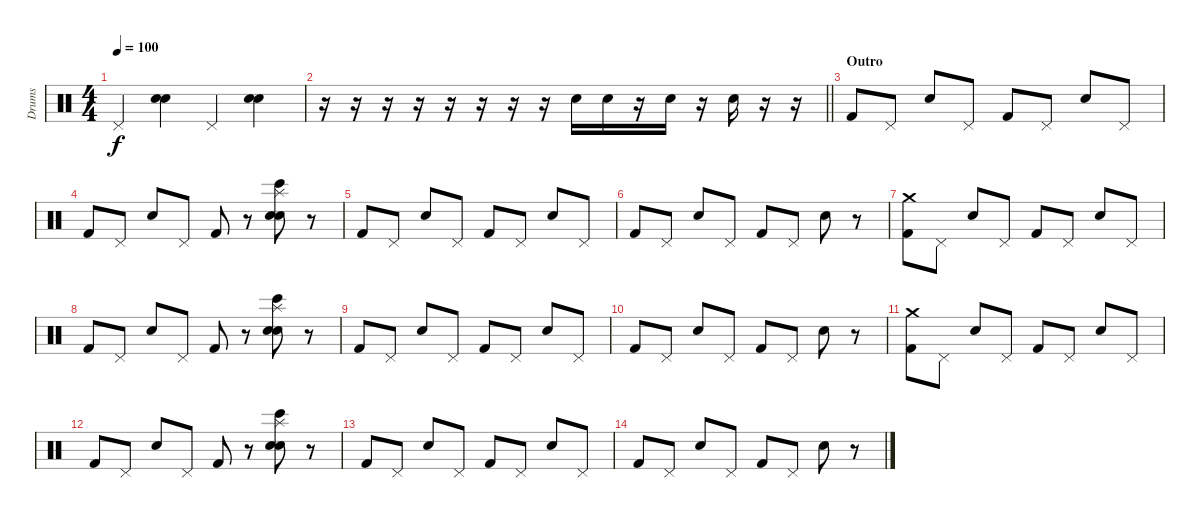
\track ("Drums" "Drums") {instrument percussion}
\staff {score}
\articulation defaults
\ts (4 4)
\tempo 100
\clef neutral
\ks c "Pedal Hi-Hat (hit)".4{dy f}
("Hand Clap (hit)" "Electric Snare (hit)").4 "Pedal Hi-Hat (hit)".4 ("Hand Clap (hit)" "Electric Snare (hit)").4 |
\barLineRight lightlight
r.16 r.16 r.16 r.16 r.16 r.16 r.16 r.16 "Snare (hit) 2".16 "Snare (hit) 2".16 r.16 "Snare (hit) 2".16 r.16 "Snare (hit) 2".16 r.16 r.16 |
\section ("" "Outro")
"Kick (hit) 2".8 "Pedal Hi-Hat (hit)".8 "Snare (hit) 2".8 "Pedal Hi-Hat (hit)".8 "Kick (hit) 2".8 "Pedal Hi-Hat (hit)".8 "Snare (hit) 2".8 "Pedal Hi-Hat (hit)".8 |
"Kick (hit) 2".8 "Pedal Hi-Hat (hit)".8 "Snare (hit) 2".8 "Pedal Hi-Hat (hit)".8 "Kick (hit) 2".8 r.8 ("Splash (hit)" "Hand Clap (hit)" "Snare (hit) 2" "Bongo High (hit)").8 r.8 |
"Kick (hit) 2".8 "Pedal Hi-Hat (hit)".8 "Snare (hit) 2".8 "Pedal Hi-Hat (hit)".8 "Kick (hit) 2".8 "Pedal Hi-Hat (hit)".8 "Snare (hit) 2".8 "Pedal Hi-Hat (hit)".8 |
"Kick (hit) 2".8 "Pedal Hi-Hat (hit)".8 "Snare (hit) 2".8 "Pedal Hi-Hat (hit)".8 "Kick (hit) 2".8 "Pedal Hi-Hat (hit)".8 "Snare (hit) 2".8 r.8 |
("Crash medium (hit)" "Kick (hit) 2").8 "Pedal Hi-Hat (hit)".8 "Snare (hit) 2".8 "Pedal Hi-Hat (hit)".8 "Kick (hit) 2".8 "Pedal Hi-Hat (hit)".8 "Snare (hit) 2".8 "Pedal Hi-Hat (hit)".8 |
"Kick (hit) 2".8 "Pedal Hi-Hat (hit)".8 "Snare (hit) 2".8 "Pedal Hi-Hat (hit)".8 "Kick (hit) 2".8 r.8 ("Splash (hit)" "Hand Clap (hit)" "Snare (hit) 2" "Bongo High (hit)").8 r.8 |
"Kick (hit) 2".8 "Pedal Hi-Hat (hit)".8 "Snare (hit) 2".8 "Pedal Hi-Hat (hit)".8 "Kick (hit) 2".8 "Pedal Hi-Hat (hit)".8 "Snare (hit) 2".8 "Pedal Hi-Hat (hit)".8 |
"Kick (hit) 2".8 "Pedal Hi-Hat (hit)".8 "Snare (hit) 2".8 "Pedal Hi-Hat (hit)".8 "Kick (hit) 2".8 "Pedal Hi-Hat (hit)".8 "Snare (hit) 2".8 r.8 |
("Crash medium (hit)" "Kick (hit) 2").8{volume 0} "Pedal Hi-Hat (hit)".8 "Snare (hit) 2".8 "Pedal Hi-Hat (hit)".8 "Kick (hit) 2".8 "Pedal Hi-Hat (hit)".8 "Snare (hit) 2".8 "Pedal Hi-Hat (hit)".8 |
"Kick (hit) 2".8 "Pedal Hi-Hat (hit)".8 "Snare (hit) 2".8 "Pedal Hi-Hat (hit)".8 "Kick (hit) 2".8 r.8 ("Splash (hit)" "Hand Clap (hit)" "Snare (hit) 2" "Bongo High (hit)").8 r.8 |
"Kick (hit) 2".8 "Pedal Hi-Hat (hit)".8 "Snare (hit) 2".8 "Pedal Hi-Hat (hit)".8 "Kick (hit) 2".8 "Pedal Hi-Hat (hit)".8 "Snare (hit) 2".8 "Pedal Hi-Hat (hit)".8 |
"Kick (hit) 2".8 "Pedal Hi-Hat (hit)".8 "Snare (hit) 2".8 "Pedal Hi-Hat (hit)".8 "Kick (hit) 2".8 "Pedal Hi-Hat (hit)".8 "Snare (hit) 2".8 r.8
